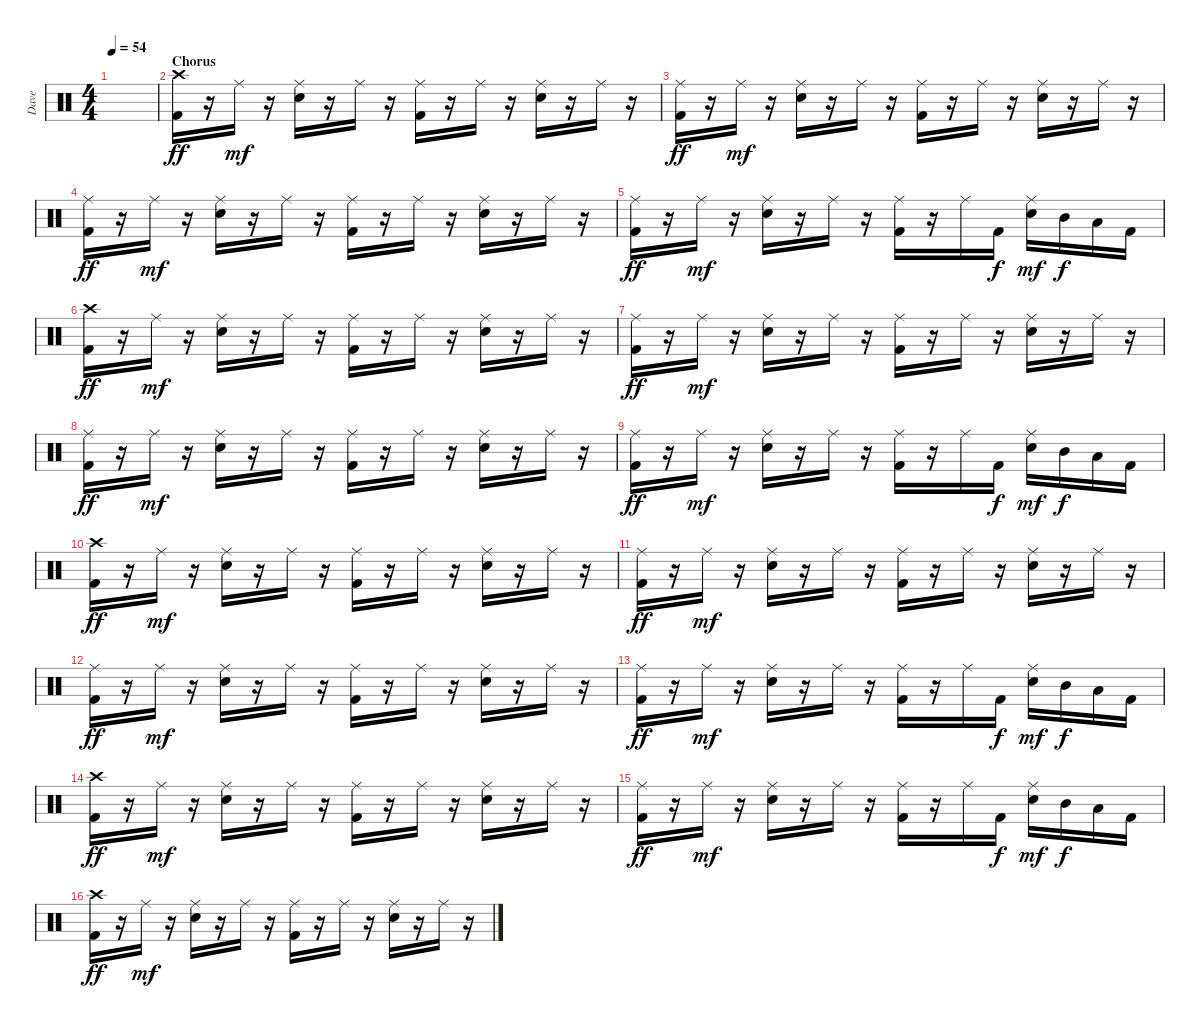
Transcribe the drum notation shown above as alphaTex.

\track ("Dave" "Dave") {instrument percussion}
\staff {score}
\articulation defaults
\ts (4 4)
\tempo 54
\clef neutral
\ks c
|
\section ("" "Chorus")
("Crash high (hit)" "Kick (hit) 2").16{dy ff} r.16 "Ride (middle)".16{dy mf} r.16 ("Ride (middle)" "Snare (hit) 2").16 r.16 "Ride (middle)".16 r.16 ("Ride (middle)" "Kick (hit) 2").16 r.16 "Ride (middle)".16 r.16 ("Ride (middle)" "Snare (hit) 2").16 r.16 "Ride (middle)".16 r.16 |
("Ride (middle)" "Kick (hit) 2").16{dy ff} r.16 "Ride (middle)".16{dy mf} r.16 ("Ride (middle)" "Snare (hit) 2").16 r.16 "Ride (middle)".16 r.16 ("Ride (middle)" "Kick (hit) 2").16 r.16 "Ride (middle)".16 r.16 ("Ride (middle)" "Snare (hit) 2").16 r.16 "Ride (middle)".16 r.16 |
("Ride (middle)" "Kick (hit) 2").16{dy ff} r.16 "Ride (middle)".16{dy mf} r.16 ("Ride (middle)" "Snare (hit) 2").16 r.16 "Ride (middle)".16 r.16 ("Ride (middle)" "Kick (hit) 2").16 r.16 "Ride (middle)".16 r.16 ("Ride (middle)" "Snare (hit) 2").16 r.16 "Ride (middle)".16 r.16 |
("Ride (middle)" "Kick (hit) 2").16{dy ff} r.16 "Ride (middle)".16{dy mf} r.16 ("Ride (middle)" "Snare (hit) 2").16 r.16 "Ride (middle)".16 r.16 ("Ride (middle)" "Kick (hit) 2").16 r.16 "Ride (middle)".16 "Kick (hit) 2".16{dy f} ("Ride (middle)" "Snare (hit) 2").16{dy mf} "Mid Tom (hit)".16{dy f} "Low Tom (hit)".16 "Kick (hit) 2".16 |
("Crash high (hit)" "Kick (hit) 2").16{dy ff} r.16 "Ride (middle)".16{dy mf} r.16 ("Ride (middle)" "Snare (hit) 2").16 r.16 "Ride (middle)".16 r.16 ("Ride (middle)" "Kick (hit) 2").16 r.16 "Ride (middle)".16 r.16 ("Ride (middle)" "Snare (hit) 2").16 r.16 "Ride (middle)".16 r.16 |
("Ride (middle)" "Kick (hit) 2").16{dy ff} r.16 "Ride (middle)".16{dy mf} r.16 ("Ride (middle)" "Snare (hit) 2").16 r.16 "Ride (middle)".16 r.16 ("Ride (middle)" "Kick (hit) 2").16 r.16 "Ride (middle)".16 r.16 ("Ride (middle)" "Snare (hit) 2").16 r.16 "Ride (middle)".16 r.16 |
("Ride (middle)" "Kick (hit) 2").16{dy ff} r.16 "Ride (middle)".16{dy mf} r.16 ("Ride (middle)" "Snare (hit) 2").16 r.16 "Ride (middle)".16 r.16 ("Ride (middle)" "Kick (hit) 2").16 r.16 "Ride (middle)".16 r.16 ("Ride (middle)" "Snare (hit) 2").16 r.16 "Ride (middle)".16 r.16 |
("Ride (middle)" "Kick (hit) 2").16{dy ff} r.16 "Ride (middle)".16{dy mf} r.16 ("Ride (middle)" "Snare (hit) 2").16 r.16 "Ride (middle)".16 r.16 ("Ride (middle)" "Kick (hit) 2").16 r.16 "Ride (middle)".16 "Kick (hit) 2".16{dy f} ("Ride (middle)" "Snare (hit) 2").16{dy mf} "Mid Tom (hit)".16{dy f} "Low Tom (hit)".16 "Kick (hit) 2".16 |
("Crash high (hit)" "Kick (hit) 2").16{dy ff} r.16 "Ride (middle)".16{dy mf} r.16 ("Ride (middle)" "Snare (hit) 2").16 r.16 "Ride (middle)".16 r.16 ("Ride (middle)" "Kick (hit) 2").16 r.16 "Ride (middle)".16 r.16 ("Ride (middle)" "Snare (hit) 2").16 r.16 "Ride (middle)".16 r.16 |
("Ride (middle)" "Kick (hit) 2").16{dy ff} r.16 "Ride (middle)".16{dy mf} r.16 ("Ride (middle)" "Snare (hit) 2").16 r.16 "Ride (middle)".16 r.16 ("Ride (middle)" "Kick (hit) 2").16 r.16 "Ride (middle)".16 r.16 ("Ride (middle)" "Snare (hit) 2").16 r.16 "Ride (middle)".16 r.16 |
("Ride (middle)" "Kick (hit) 2").16{dy ff} r.16 "Ride (middle)".16{dy mf} r.16 ("Ride (middle)" "Snare (hit) 2").16 r.16 "Ride (middle)".16 r.16 ("Ride (middle)" "Kick (hit) 2").16 r.16 "Ride (middle)".16 r.16 ("Ride (middle)" "Snare (hit) 2").16 r.16 "Ride (middle)".16 r.16 |
("Ride (middle)" "Kick (hit) 2").16{dy ff} r.16 "Ride (middle)".16{dy mf} r.16 ("Ride (middle)" "Snare (hit) 2").16 r.16 "Ride (middle)".16 r.16 ("Ride (middle)" "Kick (hit) 2").16 r.16 "Ride (middle)".16 "Kick (hit) 2".16{dy f} ("Ride (middle)" "Snare (hit) 2").16{dy mf} "Mid Tom (hit)".16{dy f} "Low Tom (hit)".16 "Kick (hit) 2".16 |
("Crash high (hit)" "Kick (hit) 2").16{dy ff} r.16 "Ride (middle)".16{dy mf} r.16 ("Ride (middle)" "Snare (hit) 2").16 r.16 "Ride (middle)".16 r.16 ("Ride (middle)" "Kick (hit) 2").16 r.16 "Ride (middle)".16 r.16 ("Ride (middle)" "Snare (hit) 2").16 r.16 "Ride (middle)".16 r.16 |
("Ride (middle)" "Kick (hit) 2").16{dy ff} r.16 "Ride (middle)".16{dy mf} r.16 ("Ride (middle)" "Snare (hit) 2").16 r.16 "Ride (middle)".16 r.16 ("Ride (middle)" "Kick (hit) 2").16 r.16 "Ride (middle)".16 "Kick (hit) 2".16{dy f} ("Ride (middle)" "Snare (hit) 2").16{dy mf} "Mid Tom (hit)".16{dy f} "Low Tom (hit)".16 "Kick (hit) 2".16 |
("Crash high (hit)" "Kick (hit) 2").16{dy ff} r.16 "Ride (middle)".16{dy mf} r.16 ("Ride (middle)" "Snare (hit) 2").16 r.16 "Ride (middle)".16 r.16 ("Ride (middle)" "Kick (hit) 2").16 r.16 "Ride (middle)".16 r.16 ("Ride (middle)" "Snare (hit) 2").16 r.16 "Ride (middle)".16 r.16
